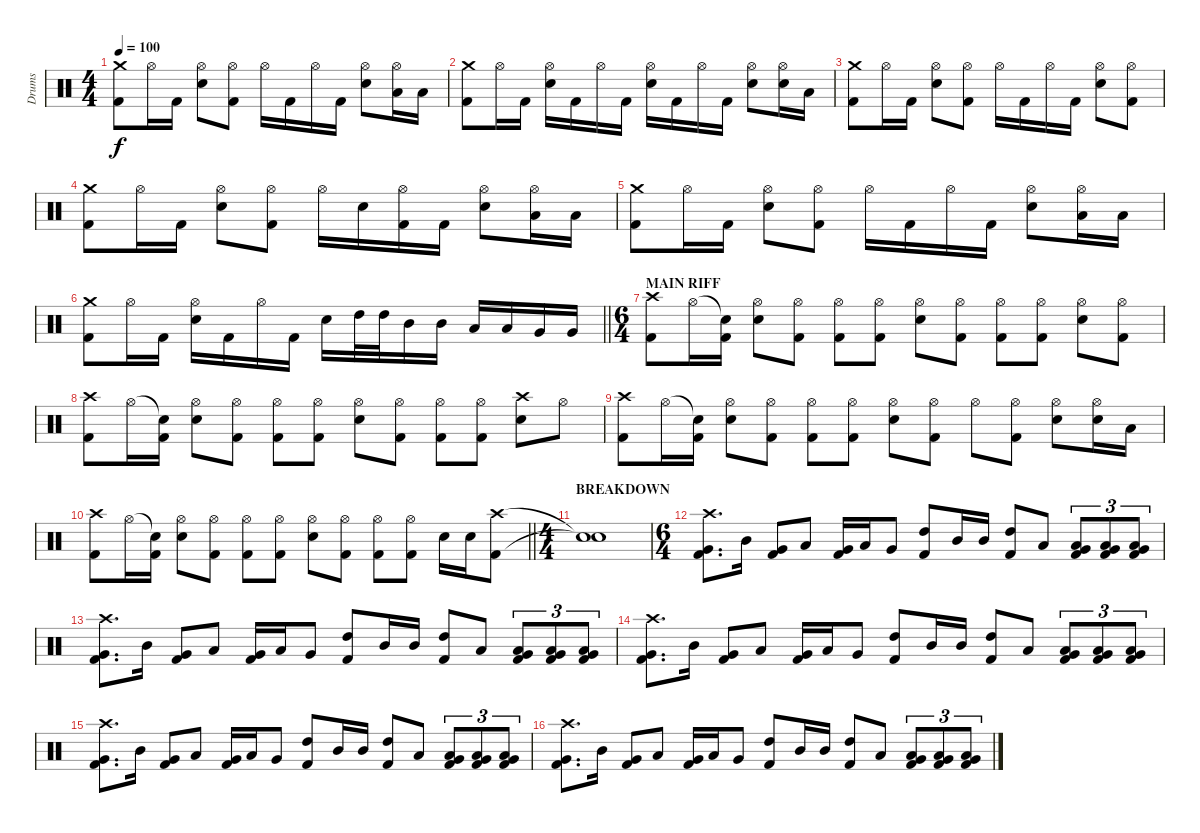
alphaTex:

\track ("Drums" "Drums") {instrument percussion}
\staff {score}
\articulation defaults
\ts (4 4)
\tempo 100
\clef neutral
\ks c
("Crash medium (hit)" "Kick (hit) 2").8{dy f} "Hi-Hat (open)".16 "Kick (hit) 2".16 ("Hi-Hat (open)" "Snare (hit) 2").8 ("Hi-Hat (open)" "Kick (hit) 2").8 "Hi-Hat (open)".16 "Kick (hit) 2".16 "Hi-Hat (open)".16 "Kick (hit) 2".16 ("Hi-Hat (open)" "Snare (hit) 2").8 ("Hi-Hat (open)" "Low Tom (hit)").16 "Low Tom (hit)".16 |
("Crash medium (hit)" "Kick (hit) 2").8 "Hi-Hat (open)".16 "Kick (hit) 2".16 ("Hi-Hat (open)" "Snare (hit) 2").16 "Kick (hit) 2".16 "Hi-Hat (open)".16 "Kick (hit) 2".16 ("Hi-Hat (open)" "Snare (hit) 2").16 "Kick (hit) 2".16 "Hi-Hat (open)".16 "Kick (hit) 2".16 ("Hi-Hat (open)" "Snare (hit) 2").8 ("Hi-Hat (open)" "Snare (hit) 2").16 "Low Tom (hit)".16 |
("Crash medium (hit)" "Kick (hit) 2").8 "Hi-Hat (open)".16 "Kick (hit) 2".16 ("Hi-Hat (open)" "Snare (hit) 2").8 ("Hi-Hat (open)" "Kick (hit) 2").8 "Hi-Hat (open)".16 "Kick (hit) 2".16 "Hi-Hat (open)".16 "Kick (hit) 2".16 ("Hi-Hat (open)" "Snare (hit) 2").8 ("Hi-Hat (open)" "Kick (hit) 2").8 |
("Crash medium (hit)" "Kick (hit) 2").8 "Hi-Hat (open)".16 "Kick (hit) 2".16 ("Hi-Hat (open)" "Snare (hit) 2").8 ("Hi-Hat (open)" "Kick (hit) 2").8 "Hi-Hat (open)".16 "Snare (hit) 2".16 ("Hi-Hat (open)" "Kick (hit) 2").16 "Kick (hit) 2".16 ("Hi-Hat (open)" "Snare (hit) 2").8 ("Hi-Hat (open)" "Low Tom (hit)").16 "Low Tom (hit)".16 |
("Crash medium (hit)" "Kick (hit) 2").8 "Hi-Hat (open)".16 "Kick (hit) 2".16 ("Hi-Hat (open)" "Snare (hit) 2").8 ("Hi-Hat (open)" "Kick (hit) 2").8 "Hi-Hat (open)".16 "Kick (hit) 2".16 "Hi-Hat (open)".16 "Kick (hit) 2".16 ("Hi-Hat (open)" "Snare (hit) 2").8 ("Hi-Hat (open)" "Low Tom (hit)").16 "Low Tom (hit)".16 |
\barLineRight lightlight
("Crash medium (hit)" "Kick (hit) 2").8 "Hi-Hat (open)".16 "Kick (hit) 2".16 ("Hi-Hat (open)" "Snare (hit) 2").16 "Kick (hit) 2".16 "Hi-Hat (open)".16 "Kick (hit) 2".16 "Snare (hit) 2".16 "High Tom (hit)".32 "High Tom (hit)".32 "Mid Tom (hit)".16 "Mid Tom (hit)".16 "Low Tom (hit)".16 "Low Tom (hit)".16 "Very Low Tom (hit)".16 "Very Low Tom (hit)".16 |
\ts (6 4)
\section ("" "MAIN RIFF")
("Crash high (hit)" "Kick (hit) 2").8 "Hi-Hat (open)".16 ("Snare (hit)"{t} "Kick (hit) 2").16 ("Hi-Hat (open)" "Snare (hit) 2").8 ("Hi-Hat (open)" "Kick (hit) 2").8 ("Hi-Hat (open)" "Kick (hit) 2").8 ("Hi-Hat (open)" "Kick (hit) 2").8 ("Hi-Hat (open)" "Snare (hit) 2").8 ("Hi-Hat (open)" "Kick (hit) 2").8 ("Hi-Hat (open)" "Kick (hit) 2").8 ("Hi-Hat (open)" "Kick (hit) 2").8 ("Hi-Hat (open)" "Snare (hit) 2").8 ("Hi-Hat (open)" "Kick (hit) 2").8 |
("Crash high (hit)" "Kick (hit) 2").8 "Hi-Hat (open)".16 ("Snare (hit)"{t} "Kick (hit) 2").16 ("Hi-Hat (open)" "Snare (hit) 2").8 ("Hi-Hat (open)" "Kick (hit) 2").8 ("Hi-Hat (open)" "Kick (hit) 2").8 ("Hi-Hat (open)" "Kick (hit) 2").8 ("Hi-Hat (open)" "Snare (hit) 2").8 ("Hi-Hat (open)" "Kick (hit) 2").8 ("Hi-Hat (open)" "Kick (hit) 2").8 ("Hi-Hat (open)" "Kick (hit) 2").8 ("Crash high (hit)" "Snare (hit) 2").8 "Hi-Hat (open)".8 |
("Crash high (hit)" "Kick (hit) 2").8 "Hi-Hat (open)".16 ("Snare (hit)"{t} "Kick (hit) 2").16 ("Hi-Hat (open)" "Snare (hit) 2").8 ("Hi-Hat (open)" "Kick (hit) 2").8 ("Hi-Hat (open)" "Kick (hit) 2").8 ("Hi-Hat (open)" "Kick (hit) 2").8 ("Hi-Hat (open)" "Snare (hit) 2").8 ("Hi-Hat (open)" "Kick (hit) 2").8 "Hi-Hat (open)".8 ("Hi-Hat (open)" "Kick (hit) 2").8 ("Hi-Hat (open)" "Snare (hit) 2").8 ("Hi-Hat (open)" "Snare (hit) 2").16 "Low Tom (hit)".16 |
\barLineRight lightlight
("Crash high (hit)" "Kick (hit) 2").8 "Hi-Hat (open)".16 ("Snare (hit)"{t} "Kick (hit) 2").16 ("Hi-Hat (open)" "Snare (hit) 2").8 ("Hi-Hat (open)" "Kick (hit) 2").8 ("Hi-Hat (open)" "Kick (hit) 2").8 ("Hi-Hat (open)" "Kick (hit) 2").8 ("Hi-Hat (open)" "Snare (hit) 2").8 ("Hi-Hat (open)" "Kick (hit) 2").8 ("Hi-Hat (open)" "Kick (hit) 2").8 ("Hi-Hat (open)" "Kick (hit) 2").8 "Snare (hit) 2".16 "Snare (hit) 2".16 ("Crash high (hit)" "Kick (hit) 2").8 |
\ts (4 4)
\section ("" "BREAKDOWN")
("Snare (hit)"{t} "Snare (hit)"{t}).1 |
\ts (6 4)
("Crash high (hit)" "Very Low Tom (hit)" "Kick (hit) 2").8{d} "Mid Tom (hit)".16 ("Very Low Tom (hit)" "Kick (hit) 2").8 "Low Tom (hit)".8 ("Very Low Tom (hit)" "Kick (hit) 2").16 "Low Tom (hit)".16 "Very Low Tom (hit)".8 ("High Tom (hit)" "Kick (hit) 2").8 "Mid Tom (hit)".16 "Mid Tom (hit)".16 ("High Tom (hit)" "Kick (hit) 2").8 "Low Tom (hit)".8 ("Low Tom (hit)" "Very Low Tom (hit)" "Kick (hit) 2").8{tu (3 2)} ("Low Tom (hit)" "Very Low Tom (hit)" "Kick (hit) 2").8{tu (3 2)} ("Low Tom (hit)" "Very Low Tom (hit)" "Kick (hit) 2").8{tu (3 2)} |
("Crash high (hit)" "Very Low Tom (hit)" "Kick (hit) 2").8{d} "Mid Tom (hit)".16 ("Very Low Tom (hit)" "Kick (hit) 2").8 "Low Tom (hit)".8 ("Very Low Tom (hit)" "Kick (hit) 2").16 "Low Tom (hit)".16 "Very Low Tom (hit)".8 ("High Tom (hit)" "Kick (hit) 2").8 "Mid Tom (hit)".16 "Mid Tom (hit)".16 ("High Tom (hit)" "Kick (hit) 2").8 "Low Tom (hit)".8 ("Low Tom (hit)" "Very Low Tom (hit)" "Kick (hit) 2").8{tu (3 2)} ("Low Tom (hit)" "Very Low Tom (hit)" "Kick (hit) 2").8{tu (3 2)} ("Low Tom (hit)" "Very Low Tom (hit)" "Kick (hit) 2").8{tu (3 2)} |
("Crash high (hit)" "Very Low Tom (hit)" "Kick (hit) 2").8{d} "Mid Tom (hit)".16 ("Very Low Tom (hit)" "Kick (hit) 2").8 "Low Tom (hit)".8 ("Very Low Tom (hit)" "Kick (hit) 2").16 "Low Tom (hit)".16 "Very Low Tom (hit)".8 ("High Tom (hit)" "Kick (hit) 2").8 "Mid Tom (hit)".16 "Mid Tom (hit)".16 ("High Tom (hit)" "Kick (hit) 2").8 "Low Tom (hit)".8 ("Low Tom (hit)" "Very Low Tom (hit)" "Kick (hit) 2").8{tu (3 2)} ("Low Tom (hit)" "Very Low Tom (hit)" "Kick (hit) 2").8{tu (3 2)} ("Low Tom (hit)" "Very Low Tom (hit)" "Kick (hit) 2").8{tu (3 2)} |
("Crash high (hit)" "Very Low Tom (hit)" "Kick (hit) 2").8{d} "Mid Tom (hit)".16 ("Very Low Tom (hit)" "Kick (hit) 2").8 "Low Tom (hit)".8 ("Very Low Tom (hit)" "Kick (hit) 2").16 "Low Tom (hit)".16 "Very Low Tom (hit)".8 ("High Tom (hit)" "Kick (hit) 2").8 "Mid Tom (hit)".16 "Mid Tom (hit)".16 ("High Tom (hit)" "Kick (hit) 2").8 "Low Tom (hit)".8 ("Low Tom (hit)" "Very Low Tom (hit)" "Kick (hit) 2").8{tu (3 2)} ("Low Tom (hit)" "Very Low Tom (hit)" "Kick (hit) 2").8{tu (3 2)} ("Low Tom (hit)" "Very Low Tom (hit)" "Kick (hit) 2").8{tu (3 2)} |
("Crash high (hit)" "Very Low Tom (hit)" "Kick (hit) 2").8{d} "Mid Tom (hit)".16 ("Very Low Tom (hit)" "Kick (hit) 2").8 "Low Tom (hit)".8 ("Very Low Tom (hit)" "Kick (hit) 2").16 "Low Tom (hit)".16 "Very Low Tom (hit)".8 ("High Tom (hit)" "Kick (hit) 2").8 "Mid Tom (hit)".16 "Mid Tom (hit)".16 ("High Tom (hit)" "Kick (hit) 2").8 "Low Tom (hit)".8 ("Low Tom (hit)" "Very Low Tom (hit)" "Kick (hit) 2").8{tu (3 2)} ("Low Tom (hit)" "Very Low Tom (hit)" "Kick (hit) 2").8{tu (3 2)} ("Low Tom (hit)" "Very Low Tom (hit)" "Kick (hit) 2").8{tu (3 2)}
